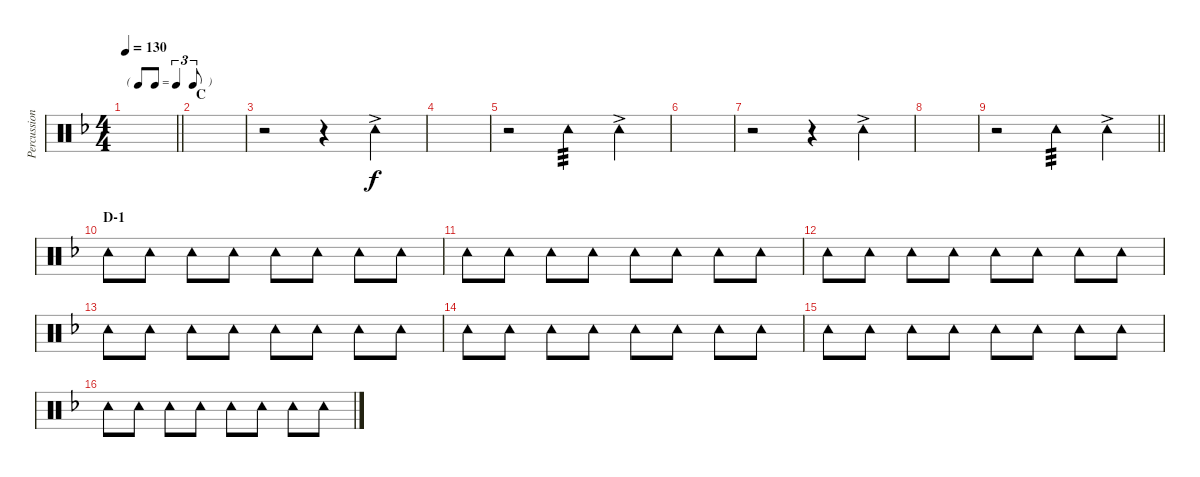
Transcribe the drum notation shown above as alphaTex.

\track ("Percussion II (Tainaka Ritsu)" "Percussion") {instrument percussion}
\staff {score}
\articulation defaults
\ts (4 4)
\tf triplet8th
\tempo 130
\clef neutral
\barLineRight lightlight
\ks f
|
\section ("" "C")
|
r.2 r.4 "Tambourine (hit)"{ac}.4 |
|
r.2 "Tambourine (hit)".4{tp 3} "Tambourine (hit)"{ac}.4 |
|
r.2 r.4 "Tambourine (hit)"{ac}.4 |
|
\barLineRight lightlight
r.2 "Tambourine (hit)".4{tp 3} "Tambourine (hit)"{ac}.4 |
\section ("" "D-1")
"Tambourine (hit)".8 "Tambourine (hit)".8 "Tambourine (hit)".8 "Tambourine (hit)".8 "Tambourine (hit)".8 "Tambourine (hit)".8 "Tambourine (hit)".8 "Tambourine (hit)".8 |
"Tambourine (hit)".8 "Tambourine (hit)".8 "Tambourine (hit)".8 "Tambourine (hit)".8 "Tambourine (hit)".8 "Tambourine (hit)".8 "Tambourine (hit)".8 "Tambourine (hit)".8 |
"Tambourine (hit)".8 "Tambourine (hit)".8 "Tambourine (hit)".8 "Tambourine (hit)".8 "Tambourine (hit)".8 "Tambourine (hit)".8 "Tambourine (hit)".8 "Tambourine (hit)".8 |
"Tambourine (hit)".8 "Tambourine (hit)".8 "Tambourine (hit)".8 "Tambourine (hit)".8 "Tambourine (hit)".8 "Tambourine (hit)".8 "Tambourine (hit)".8 "Tambourine (hit)".8 |
"Tambourine (hit)".8 "Tambourine (hit)".8 "Tambourine (hit)".8 "Tambourine (hit)".8 "Tambourine (hit)".8 "Tambourine (hit)".8 "Tambourine (hit)".8 "Tambourine (hit)".8 |
"Tambourine (hit)".8 "Tambourine (hit)".8 "Tambourine (hit)".8 "Tambourine (hit)".8 "Tambourine (hit)".8 "Tambourine (hit)".8 "Tambourine (hit)".8 "Tambourine (hit)".8 |
"Tambourine (hit)".8 "Tambourine (hit)".8 "Tambourine (hit)".8 "Tambourine (hit)".8 "Tambourine (hit)".8 "Tambourine (hit)".8 "Tambourine (hit)".8 "Tambourine (hit)".8
